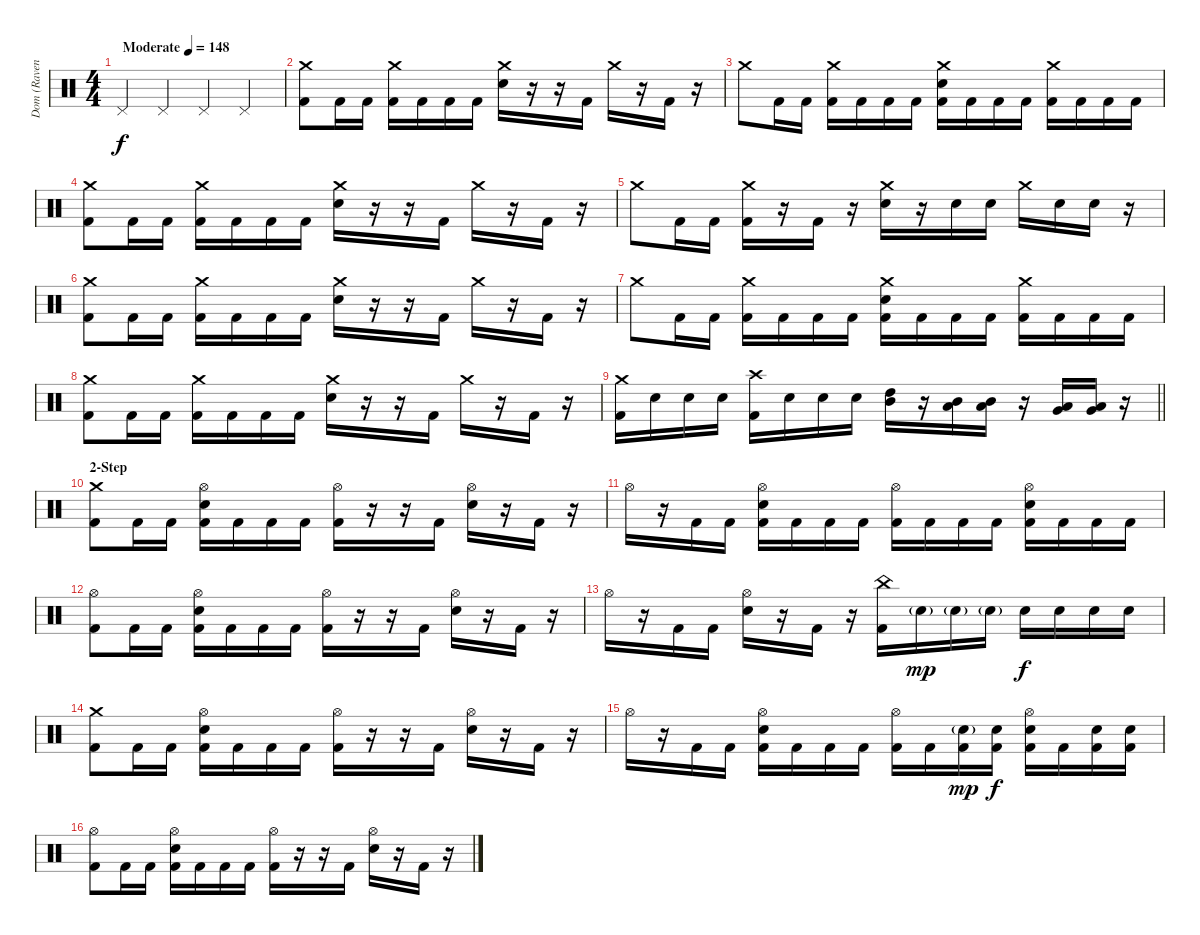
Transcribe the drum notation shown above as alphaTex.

\track ("Dom (Ravenface)" "Dom (Raven") {instrument percussion}
\staff {score}
\articulation defaults
\ts (4 4)
\tempo (148 "Moderate")
\clef neutral
\ks c "Pedal Hi-Hat (hit)".4{dy f} "Pedal Hi-Hat (hit)".4 "Pedal Hi-Hat (hit)".4 "Pedal Hi-Hat (hit)".4
|
("Crash medium (hit)" "Kick (hit) 2").8 "Kick (hit) 2".16 "Kick (hit) 2".16 ("Crash medium (hit)" "Kick (hit) 2").16 "Kick (hit) 2".16 "Kick (hit) 2".16 "Kick (hit) 2".16 ("Crash medium (hit)" "Electric Snare (hit)").16 r.16 r.16 "Kick (hit) 2".16 "Crash medium (hit)".16 r.16 "Kick (hit) 2".16 r.16 |
"Crash medium (hit)".8 "Kick (hit) 2".16 "Kick (hit) 2".16 ("Crash medium (hit)" "Kick (hit) 2").16 "Kick (hit) 2".16 "Kick (hit) 2".16 "Kick (hit) 2".16 ("Crash medium (hit)" "Electric Snare (hit)" "Kick (hit) 2").16 "Kick (hit) 2".16 "Kick (hit) 2".16 "Kick (hit) 2".16 ("Crash medium (hit)" "Kick (hit) 2").16 "Kick (hit) 2".16 "Kick (hit) 2".16 "Kick (hit) 2".16 |
("Crash medium (hit)" "Kick (hit) 2").8 "Kick (hit) 2".16 "Kick (hit) 2".16 ("Crash medium (hit)" "Kick (hit) 2").16 "Kick (hit) 2".16 "Kick (hit) 2".16 "Kick (hit) 2".16 ("Crash medium (hit)" "Electric Snare (hit)").16 r.16 r.16 "Kick (hit) 2".16 "Crash medium (hit)".16 r.16 "Kick (hit) 2".16 r.16 |
"Crash medium (hit)".8 "Kick (hit) 2".16 "Kick (hit) 2".16 ("Crash medium (hit)" "Kick (hit) 2").16 r.16 "Kick (hit) 2".16 r.16 ("Crash medium (hit)" "Electric Snare (hit)").16 r.16 "Electric Snare (hit)".16 "Electric Snare (hit)".16 "Crash medium (hit)".16 "Electric Snare (hit)".16 "Electric Snare (hit)".16 r.16 |
("Crash medium (hit)" "Kick (hit) 2").8 "Kick (hit) 2".16 "Kick (hit) 2".16 ("Crash medium (hit)" "Kick (hit) 2").16 "Kick (hit) 2".16 "Kick (hit) 2".16 "Kick (hit) 2".16 ("Crash medium (hit)" "Electric Snare (hit)").16 r.16 r.16 "Kick (hit) 2".16 "Crash medium (hit)".16 r.16 "Kick (hit) 2".16 r.16 |
"Crash medium (hit)".8 "Kick (hit) 2".16 "Kick (hit) 2".16 ("Crash medium (hit)" "Kick (hit) 2").16 "Kick (hit) 2".16 "Kick (hit) 2".16 "Kick (hit) 2".16 ("Crash medium (hit)" "Electric Snare (hit)" "Kick (hit) 2").16 "Kick (hit) 2".16 "Kick (hit) 2".16 "Kick (hit) 2".16 ("Crash medium (hit)" "Kick (hit) 2").16 "Kick (hit) 2".16 "Kick (hit) 2".16 "Kick (hit) 2".16 |
("Crash medium (hit)" "Kick (hit) 2").8 "Kick (hit) 2".16 "Kick (hit) 2".16 ("Crash medium (hit)" "Kick (hit) 2").16 "Kick (hit) 2".16 "Kick (hit) 2".16 "Kick (hit) 2".16 ("Crash medium (hit)" "Electric Snare (hit)").16 r.16 r.16 "Kick (hit) 2".16 "Crash medium (hit)".16 r.16 "Kick (hit) 2".16 r.16 |
\barLineRight lightlight
("Crash medium (hit)" "Kick (hit) 2").16 "Electric Snare (hit)".16 "Electric Snare (hit)".16 "Electric Snare (hit)".16 ("Crash high (hit)" "Kick (hit) 2").16 "Electric Snare (hit)".16 "Electric Snare (hit)".16 "Electric Snare (hit)".16 ("High Tom (hit)" "Mid Tom (hit)").16 r.16 ("Mid Tom (hit)" "Low Tom (hit)").16 ("Mid Tom (hit)" "Low Tom (hit)").16 r.16 ("Low Tom (hit)" "Very Low Tom (hit)").16 ("Low Tom (hit)" "Very Low Tom (hit)").16 r.16 |
\section ("" "2-Step")
("Crash medium (hit)" "Kick (hit) 2").8 "Kick (hit) 2".16 "Kick (hit) 2".16 ("Hi-Hat (open)" "Electric Snare (hit)" "Kick (hit) 2").16 "Kick (hit) 2".16 "Kick (hit) 2".16 "Kick (hit) 2".16 ("Hi-Hat (open)" "Kick (hit) 2").16 r.16 r.16 "Kick (hit) 2".16 ("Hi-Hat (open)" "Electric Snare (hit)").16 r.16 "Kick (hit) 2".16 r.16 |
"Hi-Hat (open)".16 r.16 "Kick (hit) 2".16 "Kick (hit) 2".16 ("Hi-Hat (open)" "Electric Snare (hit)" "Kick (hit) 2").16 "Kick (hit) 2".16 "Kick (hit) 2".16 "Kick (hit) 2".16 ("Hi-Hat (open)" "Kick (hit) 2").16 "Kick (hit) 2".16 "Kick (hit) 2".16 "Kick (hit) 2".16 ("Hi-Hat (open)" "Electric Snare (hit)" "Kick (hit) 2").16 "Kick (hit) 2".16 "Kick (hit) 2".16 "Kick (hit) 2".16 |
("Hi-Hat (open)" "Kick (hit) 2").8 "Kick (hit) 2".16 "Kick (hit) 2".16 ("Hi-Hat (open)" "Electric Snare (hit)" "Kick (hit) 2").16 "Kick (hit) 2".16 "Kick (hit) 2".16 "Kick (hit) 2".16 ("Hi-Hat (open)" "Kick (hit) 2").16 r.16 r.16 "Kick (hit) 2".16 ("Hi-Hat (open)" "Electric Snare (hit)").16 r.16 "Kick (hit) 2".16 r.16 |
"Hi-Hat (open)".16 r.16 "Kick (hit) 2".16 "Kick (hit) 2".16 ("Hi-Hat (open)" "Electric Snare (hit)").16 r.16 "Kick (hit) 2".16 r.16 ("China (hit)" "Kick (hit) 2").16 "Electric Snare (hit)"{g}.16{dy mp} "Electric Snare (hit)"{g}.16 "Electric Snare (hit)"{g}.16 "Electric Snare (hit)".16{dy f} "Electric Snare (hit)".16 "Electric Snare (hit)".16 "Electric Snare (hit)".16 |
("Crash medium (hit)" "Kick (hit) 2").8 "Kick (hit) 2".16 "Kick (hit) 2".16 ("Hi-Hat (open)" "Electric Snare (hit)" "Kick (hit) 2").16 "Kick (hit) 2".16 "Kick (hit) 2".16 "Kick (hit) 2".16 ("Hi-Hat (open)" "Kick (hit) 2").16 r.16 r.16 "Kick (hit) 2".16 ("Hi-Hat (open)" "Electric Snare (hit)").16 r.16 "Kick (hit) 2".16 r.16 |
"Hi-Hat (open)".16 r.16 "Kick (hit) 2".16 "Kick (hit) 2".16 ("Hi-Hat (open)" "Electric Snare (hit)" "Kick (hit) 2").16 "Kick (hit) 2".16 "Kick (hit) 2".16 "Kick (hit) 2".16 ("Hi-Hat (open)" "Kick (hit) 2").16 "Kick (hit) 2".16 ("Electric Snare (hit)"{g} "Kick (hit) 2").16{dy mp} ("Electric Snare (hit)" "Kick (hit) 2").16{dy f} ("Hi-Hat (open)" "Electric Snare (hit)" "Kick (hit) 2").16 "Kick (hit) 2".16 ("Electric Snare (hit)" "Kick (hit) 2").16 ("Electric Snare (hit)" "Kick (hit) 2").16 |
("Hi-Hat (open)" "Kick (hit) 2").8 "Kick (hit) 2".16 "Kick (hit) 2".16 ("Hi-Hat (open)" "Electric Snare (hit)" "Kick (hit) 2").16 "Kick (hit) 2".16 "Kick (hit) 2".16 "Kick (hit) 2".16 ("Hi-Hat (open)" "Kick (hit) 2").16 r.16 r.16 "Kick (hit) 2".16 ("Hi-Hat (open)" "Electric Snare (hit)").16 r.16 "Kick (hit) 2".16 r.16
